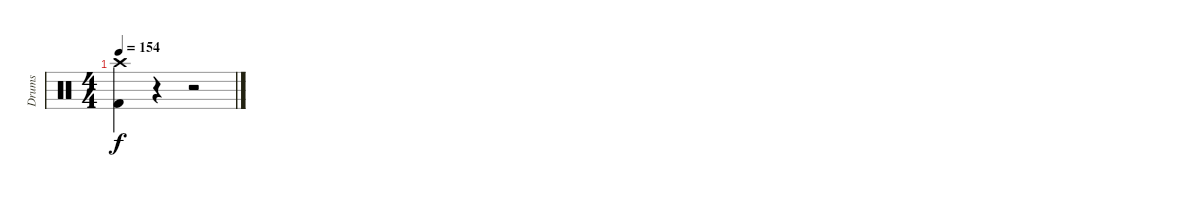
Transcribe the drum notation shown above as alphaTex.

\track ("Drums" "Drums") {instrument percussion}
\staff {score}
\articulation defaults
\ts (4 4)
\tempo 154
\clef neutral
\ks c
("Crash high (hit)" "Kick (hit) 2").4{dy f} r.4 r.2
